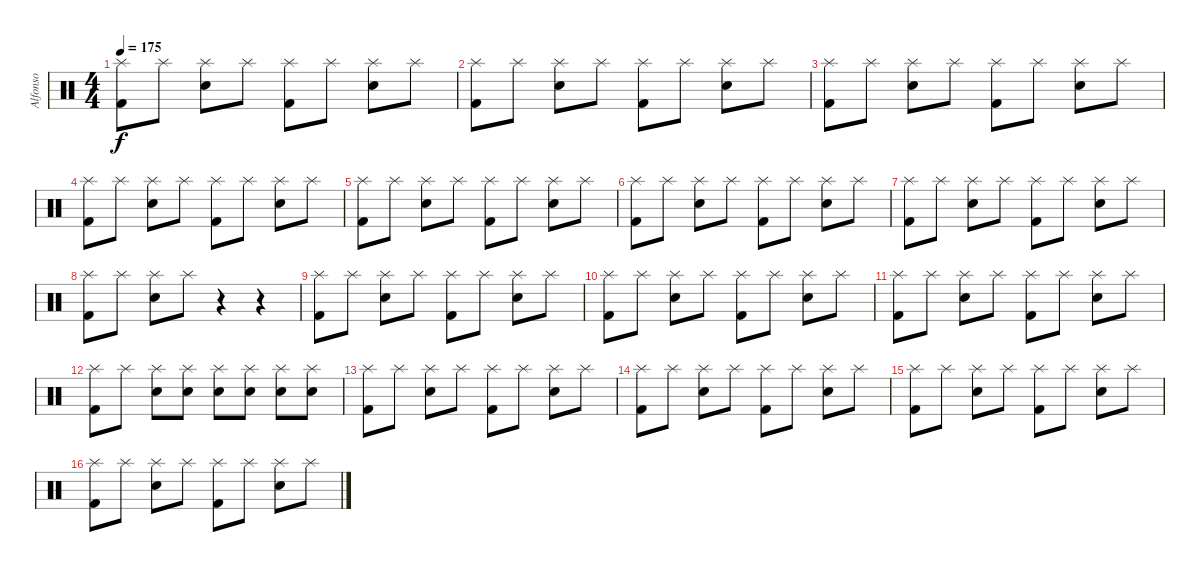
\track ("Alfonso" "Alfonso") {instrument percussion}
\staff {score}
\articulation defaults
\ts (4 4)
\tempo 175
\clef neutral
\ks c
("Splash (hit)" "Kick (hit) 2").8{dy f} "Splash (hit)".8 ("Splash (hit)" "Electric Snare (hit)").8 "Splash (hit)".8 ("Splash (hit)" "Kick (hit) 2").8 "Splash (hit)".8 ("Splash (hit)" "Electric Snare (hit)").8 "Splash (hit)".8 |
("Splash (hit)" "Kick (hit) 2").8 "Splash (hit)".8 ("Splash (hit)" "Electric Snare (hit)").8 "Splash (hit)".8 ("Splash (hit)" "Kick (hit) 2").8 "Splash (hit)".8 ("Splash (hit)" "Electric Snare (hit)").8 "Splash (hit)".8 |
("Splash (hit)" "Kick (hit) 2").8 "Splash (hit)".8 ("Splash (hit)" "Electric Snare (hit)").8 "Splash (hit)".8 ("Splash (hit)" "Kick (hit) 2").8 "Splash (hit)".8 ("Splash (hit)" "Electric Snare (hit)").8 "Splash (hit)".8 |
("Splash (hit)" "Kick (hit) 2").8 "Splash (hit)".8 ("Splash (hit)" "Electric Snare (hit)").8 "Splash (hit)".8 ("Splash (hit)" "Kick (hit) 2").8 "Splash (hit)".8 ("Splash (hit)" "Electric Snare (hit)").8 "Splash (hit)".8 |
("Splash (hit)" "Kick (hit) 2").8 "Splash (hit)".8 ("Splash (hit)" "Electric Snare (hit)").8 "Splash (hit)".8 ("Splash (hit)" "Kick (hit) 2").8 "Splash (hit)".8 ("Splash (hit)" "Electric Snare (hit)").8 "Splash (hit)".8 |
("Splash (hit)" "Kick (hit) 2").8 "Splash (hit)".8 ("Splash (hit)" "Electric Snare (hit)").8 "Splash (hit)".8 ("Splash (hit)" "Kick (hit) 2").8 "Splash (hit)".8 ("Splash (hit)" "Electric Snare (hit)").8 "Splash (hit)".8 |
("Splash (hit)" "Kick (hit) 2").8 "Splash (hit)".8 ("Splash (hit)" "Electric Snare (hit)").8 "Splash (hit)".8 ("Splash (hit)" "Kick (hit) 2").8 "Splash (hit)".8 ("Splash (hit)" "Electric Snare (hit)").8 "Splash (hit)".8 |
("Splash (hit)" "Kick (hit) 2").8 "Splash (hit)".8 ("Splash (hit)" "Electric Snare (hit)").8 "Splash (hit)".8 r.4 r.4 |
("Splash (hit)" "Kick (hit) 2").8 "Splash (hit)".8 ("Splash (hit)" "Electric Snare (hit)").8 "Splash (hit)".8 ("Splash (hit)" "Kick (hit) 2").8 "Splash (hit)".8 ("Splash (hit)" "Electric Snare (hit)").8 "Splash (hit)".8 |
("Splash (hit)" "Kick (hit) 2").8 "Splash (hit)".8 ("Splash (hit)" "Electric Snare (hit)").8 "Splash (hit)".8 ("Splash (hit)" "Kick (hit) 2").8 "Splash (hit)".8 ("Splash (hit)" "Electric Snare (hit)").8 "Splash (hit)".8 |
("Splash (hit)" "Kick (hit) 2").8 "Splash (hit)".8 ("Splash (hit)" "Electric Snare (hit)").8 "Splash (hit)".8 ("Splash (hit)" "Kick (hit) 2").8 "Splash (hit)".8 ("Splash (hit)" "Electric Snare (hit)").8 "Splash (hit)".8 |
("Splash (hit)" "Kick (hit) 2").8 "Splash (hit)".8 ("Splash (hit)" "Electric Snare (hit)").8 ("Splash (hit)" "Electric Snare (hit)").8 ("Splash (hit)" "Electric Snare (hit)").8 ("Splash (hit)" "Electric Snare (hit)").8 ("Splash (hit)" "Electric Snare (hit)").8 ("Splash (hit)" "Electric Snare (hit)").8 |
("Splash (hit)" "Kick (hit) 2").8 "Splash (hit)".8 ("Splash (hit)" "Electric Snare (hit)").8 "Splash (hit)".8 ("Splash (hit)" "Kick (hit) 2").8 "Splash (hit)".8 ("Splash (hit)" "Electric Snare (hit)").8 "Splash (hit)".8 |
("Splash (hit)" "Kick (hit) 2").8 "Splash (hit)".8 ("Splash (hit)" "Electric Snare (hit)").8 "Splash (hit)".8 ("Splash (hit)" "Kick (hit) 2").8 "Splash (hit)".8 ("Splash (hit)" "Electric Snare (hit)").8 "Splash (hit)".8 |
("Splash (hit)" "Kick (hit) 2").8 "Splash (hit)".8 ("Splash (hit)" "Electric Snare (hit)").8 "Splash (hit)".8 ("Splash (hit)" "Kick (hit) 2").8 "Splash (hit)".8 ("Splash (hit)" "Electric Snare (hit)").8 "Splash (hit)".8 |
("Splash (hit)" "Kick (hit) 2").8 "Splash (hit)".8 ("Splash (hit)" "Electric Snare (hit)").8 "Splash (hit)".8 ("Splash (hit)" "Kick (hit) 2").8 "Splash (hit)".8 ("Splash (hit)" "Electric Snare (hit)").8 "Splash (hit)".8
